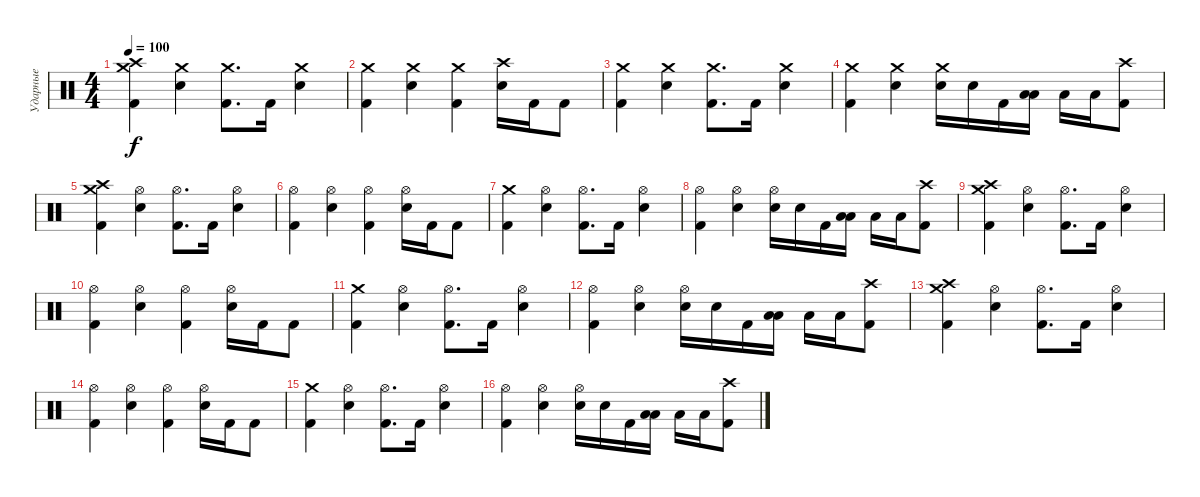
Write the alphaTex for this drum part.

\track ("Ударные" "Ударные") {instrument percussion}
\staff {score}
\articulation defaults
\ts (4 4)
\tempo 100
\clef neutral
\ks c
("Crash medium (hit)" "Crash high (hit)" "Kick (hit) 2").4{dy f} ("Crash medium (hit)" "Snare (hit) 2").4 ("Crash medium (hit)" "Kick (hit) 2").8{d} "Kick (hit) 2".16 ("Crash medium (hit)" "Snare (hit) 2").4 |
("Crash medium (hit)" "Kick (hit) 2").4 ("Crash medium (hit)" "Snare (hit) 2").4 ("Crash medium (hit)" "Kick (hit) 2").4 ("Crash high (hit)" "Snare (hit) 2").16 "Kick (hit) 2".16 "Kick (hit) 2".8 |
("Crash medium (hit)" "Kick (hit) 2").4 ("Crash medium (hit)" "Snare (hit) 2").4 ("Crash medium (hit)" "Kick (hit) 2").8{d} "Kick (hit) 2".16 ("Crash medium (hit)" "Snare (hit) 2").4 |
("Crash medium (hit)" "Kick (hit) 2").4 ("Crash medium (hit)" "Snare (hit) 2").4 ("Crash medium (hit)" "Electric Snare (hit)").16 "Electric Snare (hit)".16 "Kick (hit) 2".16 ("Low Tom (hit)" "Low Floor Tom (hit)").16 "Low Floor Tom (hit)".16 "Low Floor Tom (hit)".16 ("Crash high (hit)" "Kick (hit) 2").8 |
("Crash medium (hit)" "Crash high (hit)" "Kick (hit) 2").4 ("Hi-Hat (open)" "Snare (hit) 2").4 ("Hi-Hat (open)" "Kick (hit) 2").8{d} "Kick (hit) 2".16 ("Hi-Hat (open)" "Snare (hit) 2").4 |
("Hi-Hat (open)" "Kick (hit) 2").4 ("Hi-Hat (open)" "Snare (hit) 2").4 ("Hi-Hat (open)" "Kick (hit) 2").4 ("Hi-Hat (open)" "Snare (hit) 2").16 "Kick (hit) 2".16 "Kick (hit) 2".8 |
("Crash medium (hit)" "Kick (hit) 2").4 ("Hi-Hat (open)" "Snare (hit) 2").4 ("Hi-Hat (open)" "Kick (hit) 2").8{d} "Kick (hit) 2".16 ("Hi-Hat (open)" "Snare (hit) 2").4 |
("Hi-Hat (open)" "Kick (hit) 2").4 ("Hi-Hat (open)" "Snare (hit) 2").4 ("Hi-Hat (open)" "Electric Snare (hit)").16 "Electric Snare (hit)".16 "Kick (hit) 2".16 ("Low Tom (hit)" "Low Floor Tom (hit)").16 "Low Floor Tom (hit)".16 "Low Floor Tom (hit)".16 ("Crash high (hit)" "Kick (hit) 2").8 |
("Crash medium (hit)" "Crash high (hit)" "Kick (hit) 2").4 ("Hi-Hat (open)" "Snare (hit) 2").4 ("Hi-Hat (open)" "Kick (hit) 2").8{d} "Kick (hit) 2".16 ("Hi-Hat (open)" "Snare (hit) 2").4 |
("Hi-Hat (open)" "Kick (hit) 2").4 ("Hi-Hat (open)" "Snare (hit) 2").4 ("Hi-Hat (open)" "Kick (hit) 2").4 ("Hi-Hat (open)" "Snare (hit) 2").16 "Kick (hit) 2".16 "Kick (hit) 2".8 |
("Crash medium (hit)" "Kick (hit) 2").4 ("Hi-Hat (open)" "Snare (hit) 2").4 ("Hi-Hat (open)" "Kick (hit) 2").8{d} "Kick (hit) 2".16 ("Hi-Hat (open)" "Snare (hit) 2").4 |
("Hi-Hat (open)" "Kick (hit) 2").4 ("Hi-Hat (open)" "Snare (hit) 2").4 ("Hi-Hat (open)" "Electric Snare (hit)").16 "Electric Snare (hit)".16 "Kick (hit) 2".16 ("Low Tom (hit)" "Low Floor Tom (hit)").16 "Low Floor Tom (hit)".16 "Low Floor Tom (hit)".16 ("Crash high (hit)" "Kick (hit) 2").8 |
("Crash medium (hit)" "Crash high (hit)" "Kick (hit) 2").4 ("Hi-Hat (open)" "Snare (hit) 2").4 ("Hi-Hat (open)" "Kick (hit) 2").8{d} "Kick (hit) 2".16 ("Hi-Hat (open)" "Snare (hit) 2").4 |
("Hi-Hat (open)" "Kick (hit) 2").4 ("Hi-Hat (open)" "Snare (hit) 2").4 ("Hi-Hat (open)" "Kick (hit) 2").4 ("Hi-Hat (open)" "Snare (hit) 2").16 "Kick (hit) 2".16 "Kick (hit) 2".8 |
("Crash medium (hit)" "Kick (hit) 2").4 ("Hi-Hat (open)" "Snare (hit) 2").4 ("Hi-Hat (open)" "Kick (hit) 2").8{d} "Kick (hit) 2".16 ("Hi-Hat (open)" "Snare (hit) 2").4 |
("Hi-Hat (open)" "Kick (hit) 2").4 ("Hi-Hat (open)" "Snare (hit) 2").4 ("Hi-Hat (open)" "Electric Snare (hit)").16 "Electric Snare (hit)".16 "Kick (hit) 2".16 ("Low Tom (hit)" "Low Floor Tom (hit)").16 "Low Floor Tom (hit)".16 "Low Floor Tom (hit)".16 ("Crash high (hit)" "Kick (hit) 2").8
